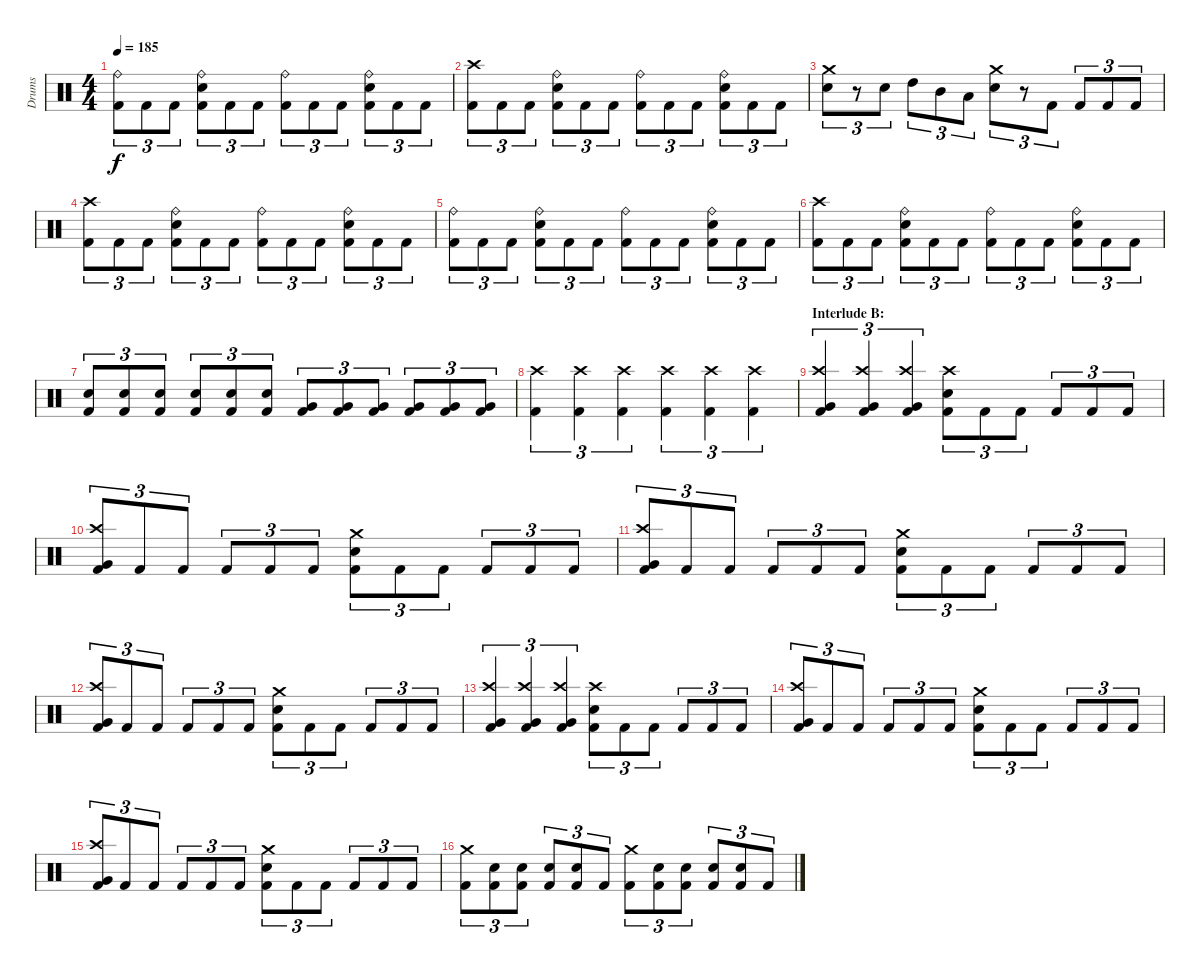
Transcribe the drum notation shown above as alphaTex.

\track ("Drums" "Drums") {instrument percussion}
\staff {score}
\articulation defaults
\ts (4 4)
\tempo 185
\clef neutral
\ks c
("Ride (bell)" "Kick (hit) 2").8{tu (3 2) dy f} "Kick (hit) 2".8{tu (3 2)} "Kick (hit) 2".8{tu (3 2)} ("Ride (bell)" "Electric Snare (hit)" "Kick (hit) 2").8{tu (3 2)} "Kick (hit) 2".8{tu (3 2)} "Kick (hit) 2".8{tu (3 2)} ("Ride (bell)" "Kick (hit) 2").8{tu (3 2)} "Kick (hit) 2".8{tu (3 2)} "Kick (hit) 2".8{tu (3 2)} ("Ride (bell)" "Electric Snare (hit)" "Kick (hit) 2").8{tu (3 2)} "Kick (hit) 2".8{tu (3 2)} "Kick (hit) 2".8{tu (3 2)} |
("Crash high (hit)" "Kick (hit) 2").8{tu (3 2)} "Kick (hit) 2".8{tu (3 2)} "Kick (hit) 2".8{tu (3 2)} ("Ride (bell)" "Electric Snare (hit)" "Kick (hit) 2").8{tu (3 2)} "Kick (hit) 2".8{tu (3 2)} "Kick (hit) 2".8{tu (3 2)} ("Ride (bell)" "Kick (hit) 2").8{tu (3 2)} "Kick (hit) 2".8{tu (3 2)} "Kick (hit) 2".8{tu (3 2)} ("Ride (bell)" "Electric Snare (hit)" "Kick (hit) 2").8{tu (3 2)} "Kick (hit) 2".8{tu (3 2)} "Kick (hit) 2".8{tu (3 2)} |
("Crash medium (hit)" "Electric Snare (hit)").8{tu (3 2)} r.8{tu (3 2)} "Electric Snare (hit)".8{tu (3 2)} "High Tom (hit)".8{tu (3 2)} "Mid Tom (hit)".8{tu (3 2)} "Low Tom (hit)".8{tu (3 2)} ("Crash medium (hit)" "Electric Snare (hit)").8{tu (3 2)} r.8{tu (3 2)} "Kick (hit) 2".8{tu (3 2)} "Kick (hit) 2".8{tu (3 2)} "Kick (hit) 2".8{tu (3 2)} "Kick (hit) 2".8{tu (3 2)} |
("Crash high (hit)" "Kick (hit) 2").8{tu (3 2)} "Kick (hit) 2".8{tu (3 2)} "Kick (hit) 2".8{tu (3 2)} ("Ride (bell)" "Electric Snare (hit)" "Kick (hit) 2").8{tu (3 2)} "Kick (hit) 2".8{tu (3 2)} "Kick (hit) 2".8{tu (3 2)} ("Ride (bell)" "Kick (hit) 2").8{tu (3 2)} "Kick (hit) 2".8{tu (3 2)} "Kick (hit) 2".8{tu (3 2)} ("Ride (bell)" "Electric Snare (hit)" "Kick (hit) 2").8{tu (3 2)} "Kick (hit) 2".8{tu (3 2)} "Kick (hit) 2".8{tu (3 2)} |
("Ride (bell)" "Kick (hit) 2").8{tu (3 2)} "Kick (hit) 2".8{tu (3 2)} "Kick (hit) 2".8{tu (3 2)} ("Ride (bell)" "Electric Snare (hit)" "Kick (hit) 2").8{tu (3 2)} "Kick (hit) 2".8{tu (3 2)} "Kick (hit) 2".8{tu (3 2)} ("Ride (bell)" "Kick (hit) 2").8{tu (3 2)} "Kick (hit) 2".8{tu (3 2)} "Kick (hit) 2".8{tu (3 2)} ("Ride (bell)" "Electric Snare (hit)" "Kick (hit) 2").8{tu (3 2)} "Kick (hit) 2".8{tu (3 2)} "Kick (hit) 2".8{tu (3 2)} |
("Crash high (hit)" "Kick (hit) 2").8{tu (3 2)} "Kick (hit) 2".8{tu (3 2)} "Kick (hit) 2".8{tu (3 2)} ("Ride (bell)" "Electric Snare (hit)" "Kick (hit) 2").8{tu (3 2)} "Kick (hit) 2".8{tu (3 2)} "Kick (hit) 2".8{tu (3 2)} ("Ride (bell)" "Kick (hit) 2").8{tu (3 2)} "Kick (hit) 2".8{tu (3 2)} "Kick (hit) 2".8{tu (3 2)} ("Ride (bell)" "Electric Snare (hit)" "Kick (hit) 2").8{tu (3 2)} "Kick (hit) 2".8{tu (3 2)} "Kick (hit) 2".8{tu (3 2)} |
("Electric Snare (hit)" "Kick (hit) 2").8{tu (3 2)} ("Electric Snare (hit)" "Kick (hit) 2").8{tu (3 2)} ("Electric Snare (hit)" "Kick (hit) 2").8{tu (3 2)} ("Electric Snare (hit)" "Kick (hit) 2").8{tu (3 2)} ("Electric Snare (hit)" "Kick (hit) 2").8{tu (3 2)} ("Electric Snare (hit)" "Kick (hit) 2").8{tu (3 2)} ("Very Low Tom (hit)" "Kick (hit) 2").8{tu (3 2)} ("Very Low Tom (hit)" "Kick (hit) 2").8{tu (3 2)} ("Very Low Tom (hit)" "Kick (hit) 2").8{tu (3 2)} ("Very Low Tom (hit)" "Kick (hit) 2").8{tu (3 2)} ("Very Low Tom (hit)" "Kick (hit) 2").8{tu (3 2)} ("Very Low Tom (hit)" "Kick (hit) 2").8{tu (3 2)} |
("Crash high (hit)" "Kick (hit) 2").4{tu (3 2)} ("Crash high (hit)" "Kick (hit) 2").4{tu (3 2)} ("Crash high (hit)" "Kick (hit) 2").4{tu (3 2)} ("Crash high (hit)" "Kick (hit) 2").4{tu (3 2)} ("Crash high (hit)" "Kick (hit) 2").4{tu (3 2)} ("Crash high (hit)" "Kick (hit) 2").4{tu (3 2)} |
\section ("" "Interlude B:")
("Crash high (hit)" "Very Low Tom (hit)" "Kick (hit) 2").4{tu (3 2)} ("Crash high (hit)" "Very Low Tom (hit)" "Kick (hit) 2").4{tu (3 2)} ("Crash high (hit)" "Very Low Tom (hit)" "Kick (hit) 2").4{tu (3 2)} ("Crash high (hit)" "Electric Snare (hit)" "Kick (hit) 2").8{tu (3 2)} "Kick (hit) 2".8{tu (3 2)} "Kick (hit) 2".8{tu (3 2)} "Kick (hit) 2".8{tu (3 2)} "Kick (hit) 2".8{tu (3 2)} "Kick (hit) 2".8{tu (3 2)} |
("Crash high (hit)" "Very Low Tom (hit)" "Kick (hit) 2").8{tu (3 2)} "Kick (hit) 2".8{tu (3 2)} "Kick (hit) 2".8{tu (3 2)} "Kick (hit) 2".8{tu (3 2)} "Kick (hit) 2".8{tu (3 2)} "Kick (hit) 2".8{tu (3 2)} ("Crash medium (hit)" "Electric Snare (hit)" "Kick (hit) 2").8{tu (3 2)} "Kick (hit) 2".8{tu (3 2)} "Kick (hit) 2".8{tu (3 2)} "Kick (hit) 2".8{tu (3 2)} "Kick (hit) 2".8{tu (3 2)} "Kick (hit) 2".8{tu (3 2)} |
("Crash high (hit)" "Very Low Tom (hit)" "Kick (hit) 2").8{tu (3 2)} "Kick (hit) 2".8{tu (3 2)} "Kick (hit) 2".8{tu (3 2)} "Kick (hit) 2".8{tu (3 2)} "Kick (hit) 2".8{tu (3 2)} "Kick (hit) 2".8{tu (3 2)} ("Crash medium (hit)" "Electric Snare (hit)" "Kick (hit) 2").8{tu (3 2)} "Kick (hit) 2".8{tu (3 2)} "Kick (hit) 2".8{tu (3 2)} "Kick (hit) 2".8{tu (3 2)} "Kick (hit) 2".8{tu (3 2)} "Kick (hit) 2".8{tu (3 2)} |
("Crash high (hit)" "Very Low Tom (hit)" "Kick (hit) 2").8{tu (3 2)} "Kick (hit) 2".8{tu (3 2)} "Kick (hit) 2".8{tu (3 2)} "Kick (hit) 2".8{tu (3 2)} "Kick (hit) 2".8{tu (3 2)} "Kick (hit) 2".8{tu (3 2)} ("Crash medium (hit)" "Electric Snare (hit)" "Kick (hit) 2").8{tu (3 2)} "Kick (hit) 2".8{tu (3 2)} "Kick (hit) 2".8{tu (3 2)} "Kick (hit) 2".8{tu (3 2)} "Kick (hit) 2".8{tu (3 2)} "Kick (hit) 2".8{tu (3 2)} |
("Crash high (hit)" "Very Low Tom (hit)" "Kick (hit) 2").4{tu (3 2)} ("Crash high (hit)" "Very Low Tom (hit)" "Kick (hit) 2").4{tu (3 2)} ("Crash high (hit)" "Very Low Tom (hit)" "Kick (hit) 2").4{tu (3 2)} ("Crash high (hit)" "Electric Snare (hit)" "Kick (hit) 2").8{tu (3 2)} "Kick (hit) 2".8{tu (3 2)} "Kick (hit) 2".8{tu (3 2)} "Kick (hit) 2".8{tu (3 2)} "Kick (hit) 2".8{tu (3 2)} "Kick (hit) 2".8{tu (3 2)} |
("Crash high (hit)" "Very Low Tom (hit)" "Kick (hit) 2").8{tu (3 2)} "Kick (hit) 2".8{tu (3 2)} "Kick (hit) 2".8{tu (3 2)} "Kick (hit) 2".8{tu (3 2)} "Kick (hit) 2".8{tu (3 2)} "Kick (hit) 2".8{tu (3 2)} ("Crash medium (hit)" "Electric Snare (hit)" "Kick (hit) 2").8{tu (3 2)} "Kick (hit) 2".8{tu (3 2)} "Kick (hit) 2".8{tu (3 2)} "Kick (hit) 2".8{tu (3 2)} "Kick (hit) 2".8{tu (3 2)} "Kick (hit) 2".8{tu (3 2)} |
("Crash high (hit)" "Very Low Tom (hit)" "Kick (hit) 2").8{tu (3 2)} "Kick (hit) 2".8{tu (3 2)} "Kick (hit) 2".8{tu (3 2)} "Kick (hit) 2".8{tu (3 2)} "Kick (hit) 2".8{tu (3 2)} "Kick (hit) 2".8{tu (3 2)} ("Crash medium (hit)" "Electric Snare (hit)" "Kick (hit) 2").8{tu (3 2)} "Kick (hit) 2".8{tu (3 2)} "Kick (hit) 2".8{tu (3 2)} "Kick (hit) 2".8{tu (3 2)} "Kick (hit) 2".8{tu (3 2)} "Kick (hit) 2".8{tu (3 2)} |
("Crash medium (hit)" "Kick (hit) 2").8{tu (3 2)} ("Electric Snare (hit)" "Kick (hit) 2").8{tu (3 2)} ("Electric Snare (hit)" "Kick (hit) 2").8{tu (3 2)} ("Electric Snare (hit)" "Kick (hit) 2").8{tu (3 2)} ("Electric Snare (hit)" "Kick (hit) 2").8{tu (3 2)} "Kick (hit) 2".8{tu (3 2)} ("Crash medium (hit)" "Kick (hit) 2").8{tu (3 2)} ("Electric Snare (hit)" "Kick (hit) 2").8{tu (3 2)} ("Electric Snare (hit)" "Kick (hit) 2").8{tu (3 2)} ("Electric Snare (hit)" "Kick (hit) 2").8{tu (3 2)} ("Electric Snare (hit)" "Kick (hit) 2").8{tu (3 2)} "Kick (hit) 2".8{tu (3 2)}
